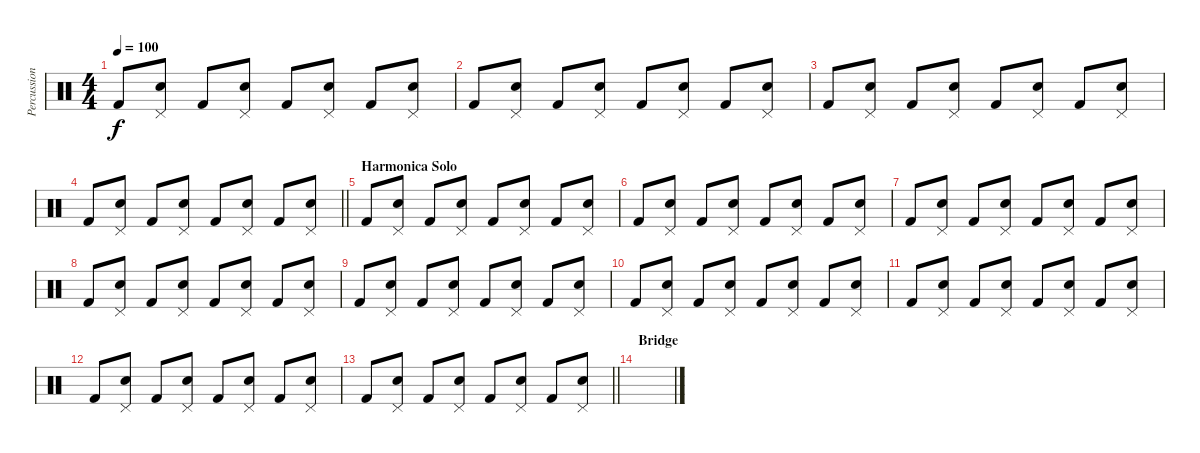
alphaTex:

\track ("Percussion" "Percussion") {instrument percussion}
\staff {score}
\articulation defaults
\ts (4 4)
\tempo 100
\clef neutral
\ks c "Kick (hit) 2".8{dy f}
("Pedal Hi-Hat (hit)" "Snare (hit) 2").8 "Kick (hit) 2".8 ("Pedal Hi-Hat (hit)" "Snare (hit) 2").8 "Kick (hit) 2".8 ("Pedal Hi-Hat (hit)" "Snare (hit) 2").8 "Kick (hit) 2".8 ("Pedal Hi-Hat (hit)" "Snare (hit) 2").8 |
"Kick (hit) 2".8 ("Pedal Hi-Hat (hit)" "Snare (hit) 2").8 "Kick (hit) 2".8 ("Pedal Hi-Hat (hit)" "Snare (hit) 2").8 "Kick (hit) 2".8 ("Pedal Hi-Hat (hit)" "Snare (hit) 2").8 "Kick (hit) 2".8 ("Pedal Hi-Hat (hit)" "Snare (hit) 2").8 |
"Kick (hit) 2".8 ("Pedal Hi-Hat (hit)" "Snare (hit) 2").8 "Kick (hit) 2".8 ("Pedal Hi-Hat (hit)" "Snare (hit) 2").8 "Kick (hit) 2".8 ("Pedal Hi-Hat (hit)" "Snare (hit) 2").8 "Kick (hit) 2".8 ("Pedal Hi-Hat (hit)" "Snare (hit) 2").8 |
\barLineRight lightlight "Kick (hit) 2".8
("Pedal Hi-Hat (hit)" "Snare (hit) 2").8 "Kick (hit) 2".8 ("Pedal Hi-Hat (hit)" "Snare (hit) 2").8 "Kick (hit) 2".8 ("Pedal Hi-Hat (hit)" "Snare (hit) 2").8 "Kick (hit) 2".8 ("Pedal Hi-Hat (hit)" "Snare (hit) 2").8 |
\section ("" "Harmonica Solo")
"Kick (hit) 2".8 ("Pedal Hi-Hat (hit)" "Snare (hit) 2").8 "Kick (hit) 2".8 ("Pedal Hi-Hat (hit)" "Snare (hit) 2").8 "Kick (hit) 2".8 ("Pedal Hi-Hat (hit)" "Snare (hit) 2").8 "Kick (hit) 2".8 ("Pedal Hi-Hat (hit)" "Snare (hit) 2").8 |
"Kick (hit) 2".8 ("Pedal Hi-Hat (hit)" "Snare (hit) 2").8 "Kick (hit) 2".8 ("Pedal Hi-Hat (hit)" "Snare (hit) 2").8 "Kick (hit) 2".8 ("Pedal Hi-Hat (hit)" "Snare (hit) 2").8 "Kick (hit) 2".8 ("Pedal Hi-Hat (hit)" "Snare (hit) 2").8 |
"Kick (hit) 2".8 ("Pedal Hi-Hat (hit)" "Snare (hit) 2").8 "Kick (hit) 2".8 ("Pedal Hi-Hat (hit)" "Snare (hit) 2").8 "Kick (hit) 2".8 ("Pedal Hi-Hat (hit)" "Snare (hit) 2").8 "Kick (hit) 2".8 ("Pedal Hi-Hat (hit)" "Snare (hit) 2").8 |
"Kick (hit) 2".8 ("Pedal Hi-Hat (hit)" "Snare (hit) 2").8 "Kick (hit) 2".8 ("Pedal Hi-Hat (hit)" "Snare (hit) 2").8 "Kick (hit) 2".8 ("Pedal Hi-Hat (hit)" "Snare (hit) 2").8 "Kick (hit) 2".8 ("Pedal Hi-Hat (hit)" "Snare (hit) 2").8 |
"Kick (hit) 2".8 ("Pedal Hi-Hat (hit)" "Snare (hit) 2").8 "Kick (hit) 2".8 ("Pedal Hi-Hat (hit)" "Snare (hit) 2").8 "Kick (hit) 2".8 ("Pedal Hi-Hat (hit)" "Snare (hit) 2").8 "Kick (hit) 2".8 ("Pedal Hi-Hat (hit)" "Snare (hit) 2").8 |
"Kick (hit) 2".8 ("Pedal Hi-Hat (hit)" "Snare (hit) 2").8 "Kick (hit) 2".8 ("Pedal Hi-Hat (hit)" "Snare (hit) 2").8 "Kick (hit) 2".8 ("Pedal Hi-Hat (hit)" "Snare (hit) 2").8 "Kick (hit) 2".8 ("Pedal Hi-Hat (hit)" "Snare (hit) 2").8 |
"Kick (hit) 2".8 ("Pedal Hi-Hat (hit)" "Snare (hit) 2").8 "Kick (hit) 2".8 ("Pedal Hi-Hat (hit)" "Snare (hit) 2").8 "Kick (hit) 2".8 ("Pedal Hi-Hat (hit)" "Snare (hit) 2").8 "Kick (hit) 2".8 ("Pedal Hi-Hat (hit)" "Snare (hit) 2").8 |
"Kick (hit) 2".8 ("Pedal Hi-Hat (hit)" "Snare (hit) 2").8 "Kick (hit) 2".8 ("Pedal Hi-Hat (hit)" "Snare (hit) 2").8 "Kick (hit) 2".8 ("Pedal Hi-Hat (hit)" "Snare (hit) 2").8 "Kick (hit) 2".8 ("Pedal Hi-Hat (hit)" "Snare (hit) 2").8 |
\barLineRight lightlight "Kick (hit) 2".8
("Pedal Hi-Hat (hit)" "Snare (hit) 2").8 "Kick (hit) 2".8 ("Pedal Hi-Hat (hit)" "Snare (hit) 2").8 "Kick (hit) 2".8 ("Pedal Hi-Hat (hit)" "Snare (hit) 2").8 "Kick (hit) 2".8 ("Pedal Hi-Hat (hit)" "Snare (hit) 2").8 |
\section ("" "Bridge")
